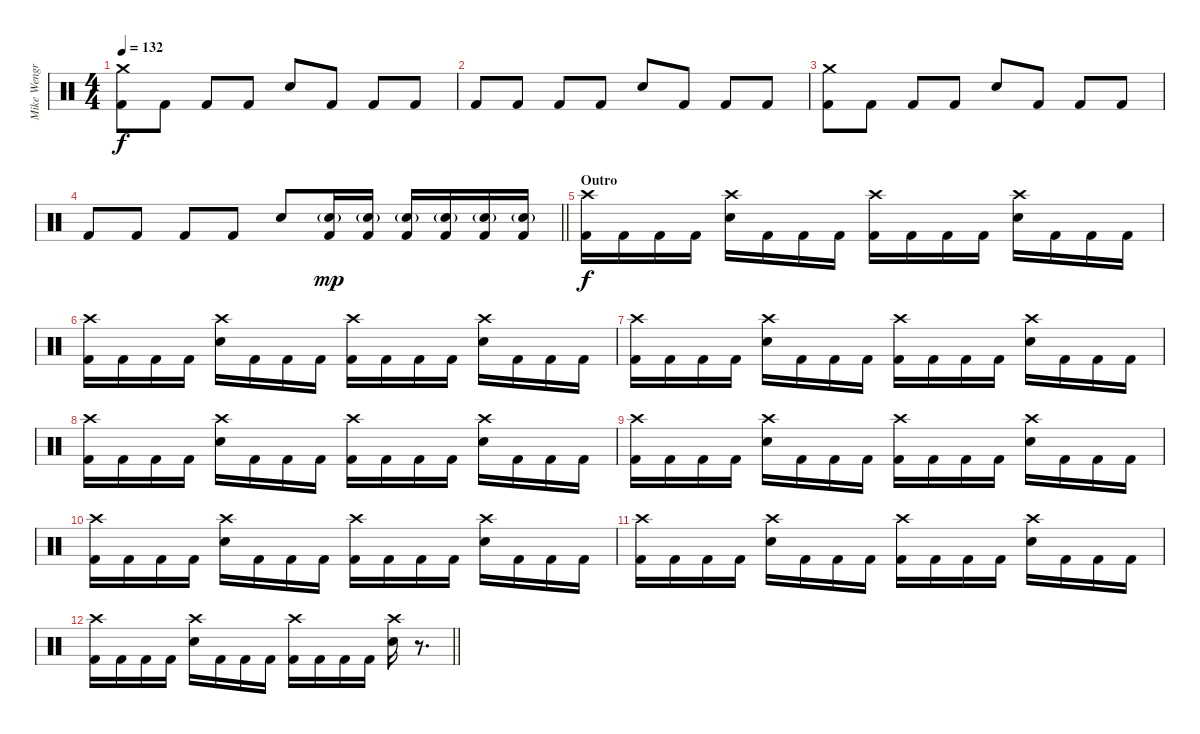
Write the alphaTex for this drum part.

\track ("Mike Wengren" "Mike Wengr") {instrument percussion}
\staff {score}
\articulation defaults
\ts (4 4)
\tempo 132
\clef neutral
\ks c
("Crash medium (hit)" "Kick (hit) 2").8{dy f} "Kick (hit) 2".8 "Kick (hit) 2".8 "Kick (hit) 2".8 "Electric Snare (hit)".8 "Kick (hit) 2".8 "Kick (hit) 2".8 "Kick (hit) 2".8 |
"Kick (hit) 2".8 "Kick (hit) 2".8 "Kick (hit) 2".8 "Kick (hit) 2".8 "Electric Snare (hit)".8 "Kick (hit) 2".8 "Kick (hit) 2".8 "Kick (hit) 2".8 |
("Crash medium (hit)" "Kick (hit) 2").8 "Kick (hit) 2".8 "Kick (hit) 2".8 "Kick (hit) 2".8 "Electric Snare (hit)".8 "Kick (hit) 2".8 "Kick (hit) 2".8 "Kick (hit) 2".8 |
\barLineRight lightlight "Kick (hit) 2".8 "Kick (hit) 2".8 "Kick (hit) 2".8 "Kick (hit) 2".8 "Electric Snare (hit)".8
("Electric Snare (hit)"{g} "Kick (hit) 2").16{dy mp} ("Electric Snare (hit)"{g} "Kick (hit) 2").16 ("Electric Snare (hit)"{g} "Kick (hit) 2").16 ("Electric Snare (hit)"{g} "Kick (hit) 2").16 ("Electric Snare (hit)"{g} "Kick (hit) 2").16 ("Electric Snare (hit)"{g} "Kick (hit) 2").16 |
\section ("" "Outro")
("Crash high (hit)" "Kick (hit) 2").16{dy f} "Kick (hit) 2".16 "Kick (hit) 2".16 "Kick (hit) 2".16 ("Crash high (hit)" "Electric Snare (hit)").16 "Kick (hit) 2".16 "Kick (hit) 2".16 "Kick (hit) 2".16 ("Crash high (hit)" "Kick (hit) 2").16 "Kick (hit) 2".16 "Kick (hit) 2".16 "Kick (hit) 2".16 ("Crash high (hit)" "Electric Snare (hit)").16 "Kick (hit) 2".16 "Kick (hit) 2".16 "Kick (hit) 2".16 |
("Crash high (hit)" "Kick (hit) 2").16 "Kick (hit) 2".16 "Kick (hit) 2".16 "Kick (hit) 2".16 ("Crash high (hit)" "Electric Snare (hit)").16 "Kick (hit) 2".16 "Kick (hit) 2".16 "Kick (hit) 2".16 ("Crash high (hit)" "Kick (hit) 2").16 "Kick (hit) 2".16 "Kick (hit) 2".16 "Kick (hit) 2".16 ("Crash high (hit)" "Electric Snare (hit)").16 "Kick (hit) 2".16 "Kick (hit) 2".16 "Kick (hit) 2".16 |
("Crash high (hit)" "Kick (hit) 2").16 "Kick (hit) 2".16 "Kick (hit) 2".16 "Kick (hit) 2".16 ("Crash high (hit)" "Electric Snare (hit)").16 "Kick (hit) 2".16 "Kick (hit) 2".16 "Kick (hit) 2".16 ("Crash high (hit)" "Kick (hit) 2").16 "Kick (hit) 2".16 "Kick (hit) 2".16 "Kick (hit) 2".16 ("Crash high (hit)" "Electric Snare (hit)").16 "Kick (hit) 2".16 "Kick (hit) 2".16 "Kick (hit) 2".16 |
("Crash high (hit)" "Kick (hit) 2").16 "Kick (hit) 2".16 "Kick (hit) 2".16 "Kick (hit) 2".16 ("Crash high (hit)" "Electric Snare (hit)").16 "Kick (hit) 2".16 "Kick (hit) 2".16 "Kick (hit) 2".16 ("Crash high (hit)" "Kick (hit) 2").16 "Kick (hit) 2".16 "Kick (hit) 2".16 "Kick (hit) 2".16 ("Crash high (hit)" "Electric Snare (hit)").16 "Kick (hit) 2".16 "Kick (hit) 2".16 "Kick (hit) 2".16 |
("Crash high (hit)" "Kick (hit) 2").16 "Kick (hit) 2".16 "Kick (hit) 2".16 "Kick (hit) 2".16 ("Crash high (hit)" "Electric Snare (hit)").16 "Kick (hit) 2".16 "Kick (hit) 2".16 "Kick (hit) 2".16 ("Crash high (hit)" "Kick (hit) 2").16 "Kick (hit) 2".16 "Kick (hit) 2".16 "Kick (hit) 2".16 ("Crash high (hit)" "Electric Snare (hit)").16 "Kick (hit) 2".16 "Kick (hit) 2".16 "Kick (hit) 2".16 |
("Crash high (hit)" "Kick (hit) 2").16 "Kick (hit) 2".16 "Kick (hit) 2".16 "Kick (hit) 2".16 ("Crash high (hit)" "Electric Snare (hit)").16 "Kick (hit) 2".16 "Kick (hit) 2".16 "Kick (hit) 2".16 ("Crash high (hit)" "Kick (hit) 2").16 "Kick (hit) 2".16 "Kick (hit) 2".16 "Kick (hit) 2".16 ("Crash high (hit)" "Electric Snare (hit)").16 "Kick (hit) 2".16 "Kick (hit) 2".16 "Kick (hit) 2".16 |
("Crash high (hit)" "Kick (hit) 2").16 "Kick (hit) 2".16 "Kick (hit) 2".16 "Kick (hit) 2".16 ("Crash high (hit)" "Electric Snare (hit)").16 "Kick (hit) 2".16 "Kick (hit) 2".16 "Kick (hit) 2".16 ("Crash high (hit)" "Kick (hit) 2").16 "Kick (hit) 2".16 "Kick (hit) 2".16 "Kick (hit) 2".16 ("Crash high (hit)" "Electric Snare (hit)").16 "Kick (hit) 2".16 "Kick (hit) 2".16 "Kick (hit) 2".16 |
\barLineRight lightlight
("Crash high (hit)" "Kick (hit) 2").16 "Kick (hit) 2".16 "Kick (hit) 2".16 "Kick (hit) 2".16 ("Crash high (hit)" "Electric Snare (hit)").16 "Kick (hit) 2".16 "Kick (hit) 2".16 "Kick (hit) 2".16 ("Crash high (hit)" "Kick (hit) 2").16 "Kick (hit) 2".16 "Kick (hit) 2".16 "Kick (hit) 2".16 ("Crash high (hit)" "Electric Snare (hit)").16 r.8{d}
